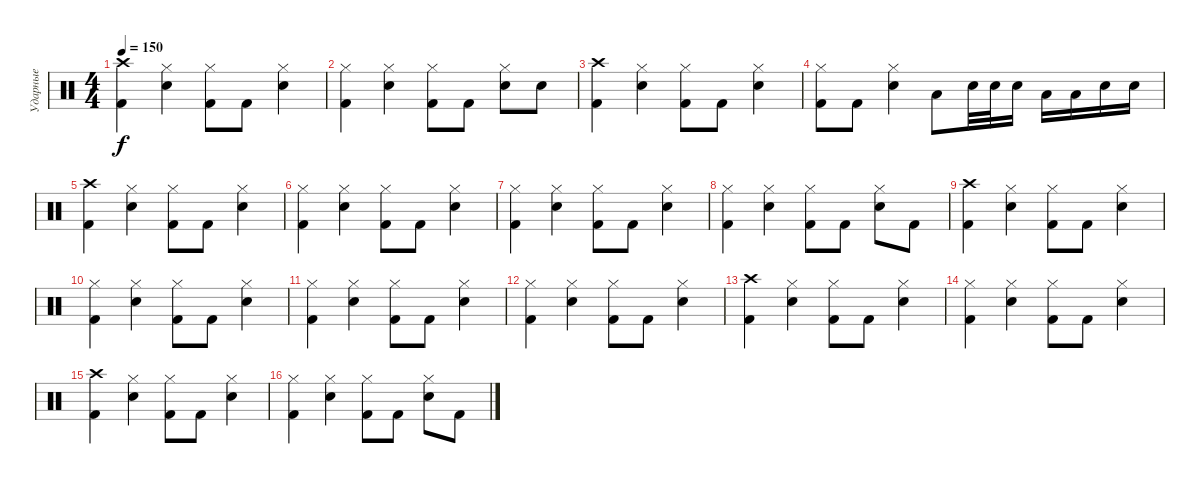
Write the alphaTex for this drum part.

\track ("Ударные" "Ударные") {instrument percussion}
\staff {score}
\articulation defaults
\ts (4 4)
\tempo 150
\clef neutral
\ks c
("Crash high (hit)" "Kick (hit) 2").4{dy f} ("Hi-Hat (closed)" "Electric Snare (hit)").4 ("Hi-Hat (closed)" "Kick (hit) 2").8 "Kick (hit) 2".8 ("Hi-Hat (closed)" "Electric Snare (hit)").4 |
("Hi-Hat (closed)" "Kick (hit) 2").4 ("Hi-Hat (closed)" "Electric Snare (hit)").4 ("Hi-Hat (closed)" "Kick (hit) 2").8 "Kick (hit) 2".8 ("Hi-Hat (closed)" "Electric Snare (hit)").8 "Electric Snare (hit)".8 |
("Crash high (hit)" "Kick (hit) 2").4 ("Hi-Hat (closed)" "Electric Snare (hit)").4 ("Hi-Hat (closed)" "Kick (hit) 2").8 "Kick (hit) 2".8 ("Hi-Hat (closed)" "Electric Snare (hit)").4 |
("Hi-Hat (closed)" "Kick (hit) 2").8 "Kick (hit) 2".8 ("Hi-Hat (closed)" "Electric Snare (hit)").4 "Low Tom (hit)".8 "Electric Snare (hit)".32 "Electric Snare (hit)".32 "Electric Snare (hit)".16 "Low Tom (hit)".16 "Low Tom (hit)".16 "Electric Snare (hit)".16 "Electric Snare (hit)".16 |
("Crash high (hit)" "Kick (hit) 2").4 ("Hi-Hat (closed)" "Electric Snare (hit)").4 ("Hi-Hat (closed)" "Kick (hit) 2").8 "Kick (hit) 2".8 ("Hi-Hat (closed)" "Electric Snare (hit)").4 |
("Hi-Hat (closed)" "Kick (hit) 2").4 ("Hi-Hat (closed)" "Electric Snare (hit)").4 ("Hi-Hat (closed)" "Kick (hit) 2").8 "Kick (hit) 2".8 ("Hi-Hat (closed)" "Electric Snare (hit)").4 |
("Hi-Hat (closed)" "Kick (hit) 2").4 ("Hi-Hat (closed)" "Electric Snare (hit)").4 ("Hi-Hat (closed)" "Kick (hit) 2").8 "Kick (hit) 2".8 ("Hi-Hat (closed)" "Electric Snare (hit)").4 |
("Hi-Hat (closed)" "Kick (hit) 2").4 ("Hi-Hat (closed)" "Electric Snare (hit)").4 ("Hi-Hat (closed)" "Kick (hit) 2").8 "Kick (hit) 2".8 ("Hi-Hat (closed)" "Electric Snare (hit)").8 "Kick (hit) 2".8 |
("Crash high (hit)" "Kick (hit) 2").4 ("Hi-Hat (closed)" "Electric Snare (hit)").4 ("Hi-Hat (closed)" "Kick (hit) 2").8 "Kick (hit) 2".8 ("Hi-Hat (closed)" "Electric Snare (hit)").4 |
("Hi-Hat (closed)" "Kick (hit) 2").4 ("Hi-Hat (closed)" "Electric Snare (hit)").4 ("Hi-Hat (closed)" "Kick (hit) 2").8 "Kick (hit) 2".8 ("Hi-Hat (closed)" "Electric Snare (hit)").4 |
("Hi-Hat (closed)" "Kick (hit) 2").4 ("Hi-Hat (closed)" "Electric Snare (hit)").4 ("Hi-Hat (closed)" "Kick (hit) 2").8 "Kick (hit) 2".8 ("Hi-Hat (closed)" "Electric Snare (hit)").4 |
("Hi-Hat (closed)" "Kick (hit) 2").4 ("Hi-Hat (closed)" "Electric Snare (hit)").4 ("Hi-Hat (closed)" "Kick (hit) 2").8 "Kick (hit) 2".8 ("Hi-Hat (closed)" "Electric Snare (hit)").4 |
("Crash high (hit)" "Kick (hit) 2").4 ("Hi-Hat (closed)" "Electric Snare (hit)").4 ("Hi-Hat (closed)" "Kick (hit) 2").8 "Kick (hit) 2".8 ("Hi-Hat (closed)" "Electric Snare (hit)").4 |
("Hi-Hat (closed)" "Kick (hit) 2").4 ("Hi-Hat (closed)" "Electric Snare (hit)").4 ("Hi-Hat (closed)" "Kick (hit) 2").8 "Kick (hit) 2".8 ("Hi-Hat (closed)" "Electric Snare (hit)").4 |
("Crash high (hit)" "Kick (hit) 2").4 ("Hi-Hat (closed)" "Electric Snare (hit)").4 ("Hi-Hat (closed)" "Kick (hit) 2").8 "Kick (hit) 2".8 ("Hi-Hat (closed)" "Electric Snare (hit)").4 |
("Hi-Hat (closed)" "Kick (hit) 2").4 ("Hi-Hat (closed)" "Electric Snare (hit)").4 ("Hi-Hat (closed)" "Kick (hit) 2").8 "Kick (hit) 2".8 ("Hi-Hat (closed)" "Electric Snare (hit)").8 "Kick (hit) 2".8
